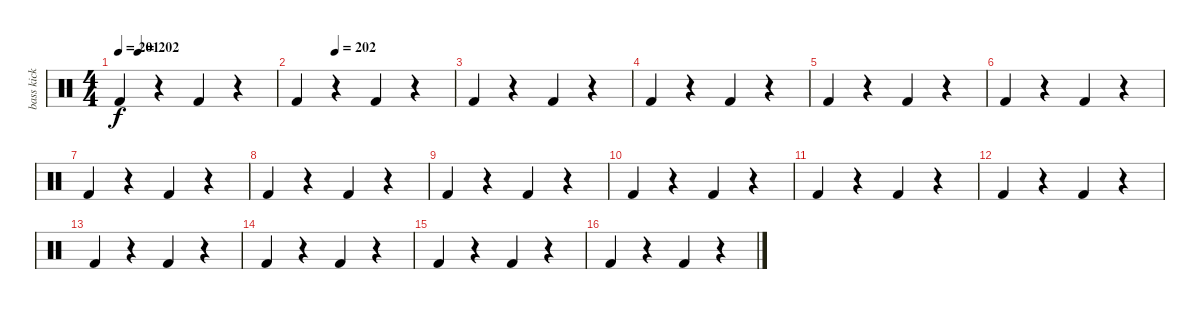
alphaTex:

\track ("bass kick" "bass kick") {instrument percussion}
\staff {score}
\articulation defaults
\ts (4 4)
\tempo 201
\tempo (202 0.125)
\clef neutral
\ks c "Kick (hit) 2".4{dy f}
r.4 "Kick (hit) 2".4 r.4 |
\tempo (202 0.25)
"Kick (hit) 2".4 r.4 "Kick (hit) 2".4 r.4 |
"Kick (hit) 2".4 r.4 "Kick (hit) 2".4 r.4 |
"Kick (hit) 2".4 r.4 "Kick (hit) 2".4 r.4 |
"Kick (hit) 2".4 r.4 "Kick (hit) 2".4 r.4 |
"Kick (hit) 2".4 r.4 "Kick (hit) 2".4 r.4 |
"Kick (hit) 2".4 r.4 "Kick (hit) 2".4 r.4 |
"Kick (hit) 2".4 r.4 "Kick (hit) 2".4 r.4 |
"Kick (hit) 2".4 r.4 "Kick (hit) 2".4 r.4 |
"Kick (hit) 2".4 r.4 "Kick (hit) 2".4 r.4 |
"Kick (hit) 2".4 r.4 "Kick (hit) 2".4 r.4 |
"Kick (hit) 2".4 r.4 "Kick (hit) 2".4 r.4 |
"Kick (hit) 2".4 r.4 "Kick (hit) 2".4 r.4 |
"Kick (hit) 2".4 r.4 "Kick (hit) 2".4 r.4 |
"Kick (hit) 2".4 r.4 "Kick (hit) 2".4 r.4 |
"Kick (hit) 2".4 r.4 "Kick (hit) 2".4 r.4
